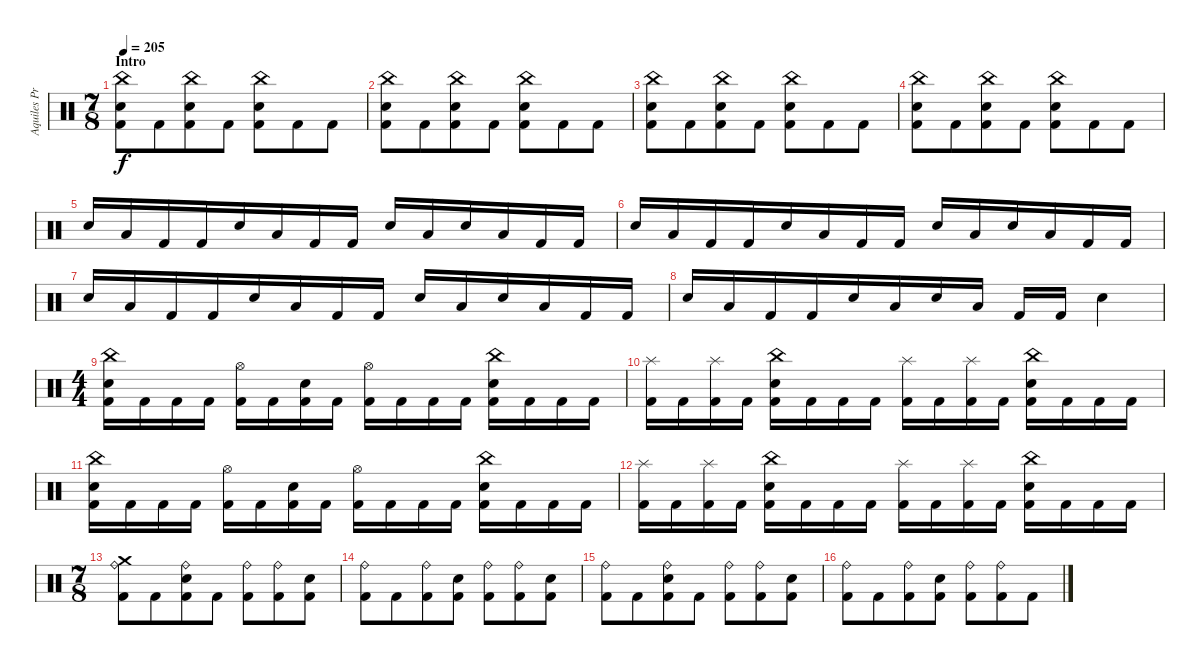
\track ("Aquiles Priester" "Aquiles Pr") {instrument percussion}
\staff {score}
\articulation defaults
\ts (7 8)
\section ("" "Intro")
\tempo 205
\clef neutral
\ks c
("China (hit)" "Electric Snare (hit)" "Kick (hit) 2").8{dy f} "Kick (hit) 2".8 ("China (hit)" "Electric Snare (hit)" "Kick (hit) 2").8 "Kick (hit) 2".8 ("China (hit)" "Electric Snare (hit)" "Kick (hit) 2").8 "Kick (hit) 2".8 "Kick (hit) 2".8 |
("China (hit)" "Electric Snare (hit)" "Kick (hit) 2").8 "Kick (hit) 2".8 ("China (hit)" "Electric Snare (hit)" "Kick (hit) 2").8 "Kick (hit) 2".8 ("China (hit)" "Electric Snare (hit)" "Kick (hit) 2").8 "Kick (hit) 2".8 "Kick (hit) 2".8 |
("China (hit)" "Electric Snare (hit)" "Kick (hit) 2").8 "Kick (hit) 2".8 ("China (hit)" "Electric Snare (hit)" "Kick (hit) 2").8 "Kick (hit) 2".8 ("China (hit)" "Electric Snare (hit)" "Kick (hit) 2").8 "Kick (hit) 2".8 "Kick (hit) 2".8 |
("China (hit)" "Electric Snare (hit)" "Kick (hit) 2").8 "Kick (hit) 2".8 ("China (hit)" "Electric Snare (hit)" "Kick (hit) 2").8 "Kick (hit) 2".8 ("China (hit)" "Electric Snare (hit)" "Kick (hit) 2").8 "Kick (hit) 2".8 "Kick (hit) 2".8 |
"Electric Snare (hit)".16 "Low Tom (hit)".16 "Kick (hit) 2".16 "Kick (hit) 2".16 "Electric Snare (hit)".16 "Low Tom (hit)".16 "Kick (hit) 2".16 "Kick (hit) 2".16 "Electric Snare (hit)".16 "Low Tom (hit)".16 "Electric Snare (hit)".16 "Low Tom (hit)".16 "Kick (hit) 2".16 "Kick (hit) 2".16 |
"Electric Snare (hit)".16 "Low Tom (hit)".16 "Kick (hit) 2".16 "Kick (hit) 2".16 "Electric Snare (hit)".16 "Low Tom (hit)".16 "Kick (hit) 2".16 "Kick (hit) 2".16 "Electric Snare (hit)".16 "Low Tom (hit)".16 "Electric Snare (hit)".16 "Low Tom (hit)".16 "Kick (hit) 2".16 "Kick (hit) 2".16 |
"Electric Snare (hit)".16 "Low Tom (hit)".16 "Kick (hit) 2".16 "Kick (hit) 2".16 "Electric Snare (hit)".16 "Low Tom (hit)".16 "Kick (hit) 2".16 "Kick (hit) 2".16 "Electric Snare (hit)".16 "Low Tom (hit)".16 "Electric Snare (hit)".16 "Low Tom (hit)".16 "Kick (hit) 2".16 "Kick (hit) 2".16 |
"Electric Snare (hit)".16 "Low Tom (hit)".16 "Kick (hit) 2".16 "Kick (hit) 2".16 "Electric Snare (hit)".16 "Low Tom (hit)".16 "Electric Snare (hit)".16 "Low Tom (hit)".16 "Kick (hit) 2".16 "Kick (hit) 2".16 "Electric Snare (hit)".4 |
\ts (4 4)
("China (hit)" "Electric Snare (hit)" "Kick (hit) 2").16 "Kick (hit) 2".16 "Kick (hit) 2".16 "Kick (hit) 2".16 ("Hi-Hat (open)" "Kick (hit) 2").16 "Kick (hit) 2".16 ("Electric Snare (hit)" "Kick (hit) 2").16 "Kick (hit) 2".16 ("Hi-Hat (open)" "Kick (hit) 2").16 "Kick (hit) 2".16 "Kick (hit) 2".16 "Kick (hit) 2".16 ("China (hit)" "Electric Snare (hit)" "Kick (hit) 2").16 "Kick (hit) 2".16 "Kick (hit) 2".16 "Kick (hit) 2".16 |
("Splash (hit)" "Kick (hit) 2").16 "Kick (hit) 2".16 ("Splash (hit)" "Kick (hit) 2").16 "Kick (hit) 2".16 ("China (hit)" "Electric Snare (hit)" "Kick (hit) 2").16 "Kick (hit) 2".16 "Kick (hit) 2".16 "Kick (hit) 2".16 ("Splash (hit)" "Kick (hit) 2").16 "Kick (hit) 2".16 ("Splash (hit)" "Kick (hit) 2").16 "Kick (hit) 2".16 ("China (hit)" "Electric Snare (hit)" "Kick (hit) 2").16 "Kick (hit) 2".16 "Kick (hit) 2".16 "Kick (hit) 2".16 |
("China (hit)" "Electric Snare (hit)" "Kick (hit) 2").16 "Kick (hit) 2".16 "Kick (hit) 2".16 "Kick (hit) 2".16 ("Hi-Hat (open)" "Kick (hit) 2").16 "Kick (hit) 2".16 ("Electric Snare (hit)" "Kick (hit) 2").16 "Kick (hit) 2".16 ("Hi-Hat (open)" "Kick (hit) 2").16 "Kick (hit) 2".16 "Kick (hit) 2".16 "Kick (hit) 2".16 ("China (hit)" "Electric Snare (hit)" "Kick (hit) 2").16 "Kick (hit) 2".16 "Kick (hit) 2".16 "Kick (hit) 2".16 |
("Splash (hit)" "Kick (hit) 2").16 "Kick (hit) 2".16 ("Splash (hit)" "Kick (hit) 2").16 "Kick (hit) 2".16 ("China (hit)" "Electric Snare (hit)" "Kick (hit) 2").16 "Kick (hit) 2".16 "Kick (hit) 2".16 "Kick (hit) 2".16 ("Splash (hit)" "Kick (hit) 2").16 "Kick (hit) 2".16 ("Splash (hit)" "Kick (hit) 2").16 "Kick (hit) 2".16 ("China (hit)" "Electric Snare (hit)" "Kick (hit) 2").16 "Kick (hit) 2".16 "Kick (hit) 2".16 "Kick (hit) 2".16 |
\ts (7 8)
("Crash medium (hit)" "Ride (bell)" "Kick (hit) 2").8 "Kick (hit) 2".8 ("Ride (bell)" "Electric Snare (hit)" "Kick (hit) 2").8 "Kick (hit) 2".8 ("Ride (bell)" "Kick (hit) 2").8 ("Ride (bell)" "Kick (hit) 2").8 ("Electric Snare (hit)" "Kick (hit) 2").8 |
("Ride (bell)" "Kick (hit) 2").8 "Kick (hit) 2".8 ("Ride (bell)" "Kick (hit) 2").8 ("Electric Snare (hit)" "Kick (hit) 2").8 ("Ride (bell)" "Kick (hit) 2").8 ("Ride (bell)" "Kick (hit) 2").8 ("Electric Snare (hit)" "Kick (hit) 2").8 |
("Ride (bell)" "Kick (hit) 2").8 "Kick (hit) 2".8 ("Ride (bell)" "Electric Snare (hit)" "Kick (hit) 2").8 "Kick (hit) 2".8 ("Ride (bell)" "Kick (hit) 2").8 ("Ride (bell)" "Kick (hit) 2").8 ("Electric Snare (hit)" "Kick (hit) 2").8 |
("Ride (bell)" "Kick (hit) 2").8 "Kick (hit) 2".8 ("Ride (bell)" "Kick (hit) 2").8 ("Electric Snare (hit)" "Kick (hit) 2").8 ("Ride (bell)" "Kick (hit) 2").8 ("Ride (bell)" "Kick (hit) 2").8 "Kick (hit) 2".8
